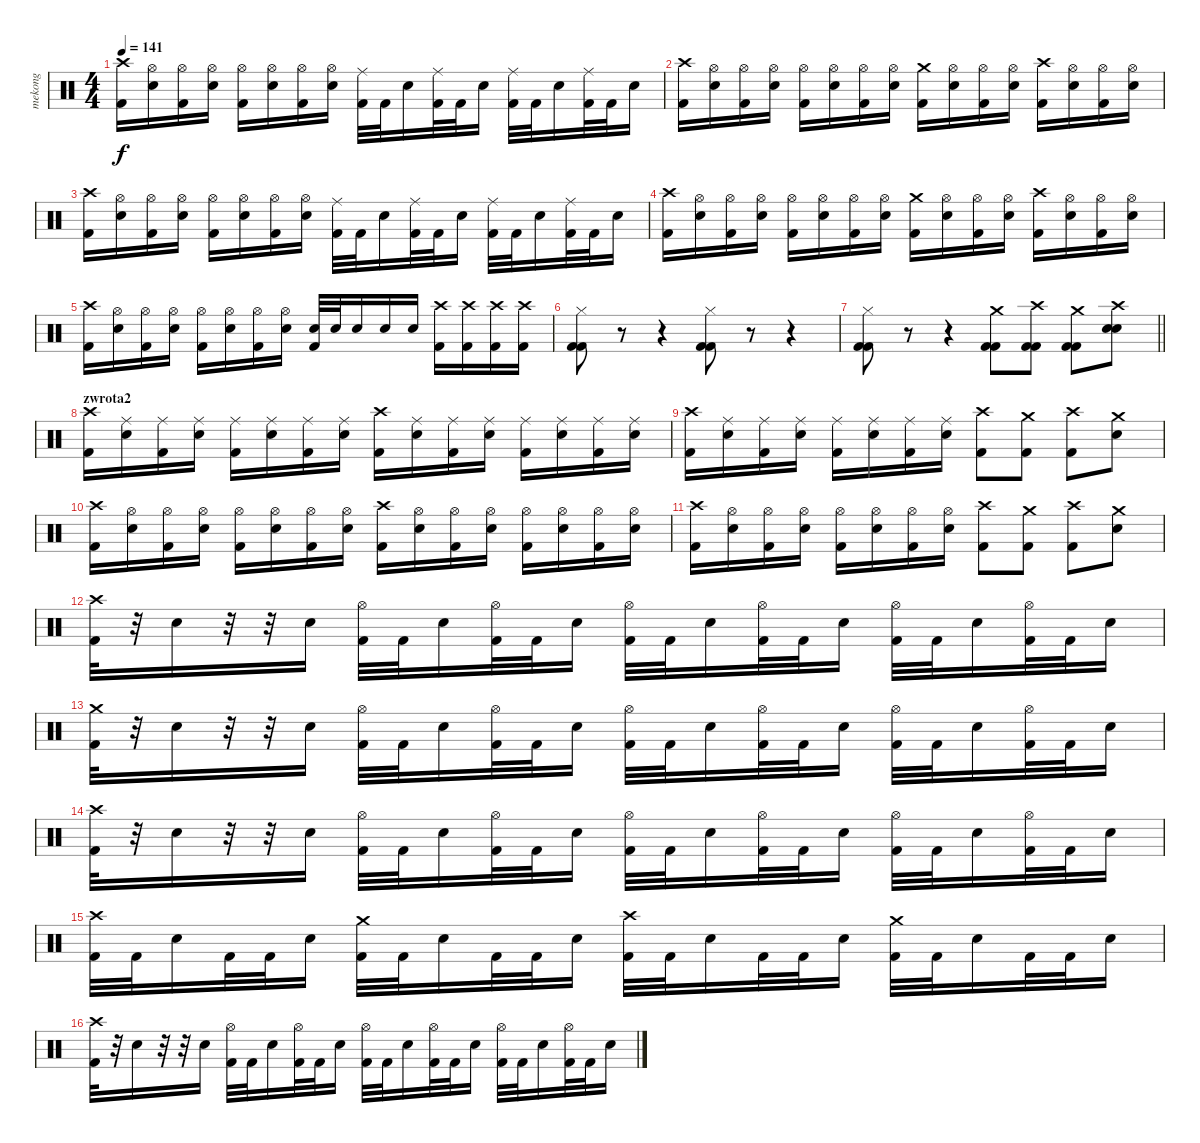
\track ("mekong" "mekong") {instrument percussion}
\staff {score}
\articulation defaults
\ts (4 4)
\tempo 141
\clef neutral
\ks c
("Crash high (hit)" "Kick (hit) 2").16{dy f} ("Electric Snare (hit)" "Hi-Hat (open)").16 ("Hi-Hat (open)" "Kick (hit) 2").16 ("Electric Snare (hit)" "Hi-Hat (open)").16 ("Hi-Hat (open)" "Kick (hit) 2").16 ("Electric Snare (hit)" "Hi-Hat (open)").16 ("Hi-Hat (open)" "Kick (hit) 2").16 ("Electric Snare (hit)" "Hi-Hat (open)").16 ("Ride (middle)" "Kick (hit) 2").32 "Kick (hit) 2".32 "Electric Snare (hit)".16 ("Ride (middle)" "Kick (hit) 2").32 "Kick (hit) 2".32 "Electric Snare (hit)".16 ("Ride (middle)" "Kick (hit) 2").32 "Kick (hit) 2".32 "Electric Snare (hit)".16 ("Ride (middle)" "Kick (hit) 2").32 "Kick (hit) 2".32 "Electric Snare (hit)".16 |
("Crash high (hit)" "Kick (hit) 2").16 ("Electric Snare (hit)" "Hi-Hat (open)").16 ("Hi-Hat (open)" "Kick (hit) 2").16 ("Electric Snare (hit)" "Hi-Hat (open)").16 ("Hi-Hat (open)" "Kick (hit) 2").16 ("Electric Snare (hit)" "Hi-Hat (open)").16 ("Hi-Hat (open)" "Kick (hit) 2").16 ("Electric Snare (hit)" "Hi-Hat (open)").16 ("Crash medium (hit)" "Kick (hit) 2").16 ("Electric Snare (hit)" "Hi-Hat (open)").16 ("Hi-Hat (open)" "Kick (hit) 2").16 ("Electric Snare (hit)" "Hi-Hat (open)").16 ("Crash high (hit)" "Kick (hit) 2").16 ("Electric Snare (hit)" "Hi-Hat (open)").16 ("Hi-Hat (open)" "Kick (hit) 2").16 ("Electric Snare (hit)" "Hi-Hat (open)").16 |
("Crash high (hit)" "Kick (hit) 2").16 ("Electric Snare (hit)" "Hi-Hat (open)").16 ("Hi-Hat (open)" "Kick (hit) 2").16 ("Electric Snare (hit)" "Hi-Hat (open)").16 ("Hi-Hat (open)" "Kick (hit) 2").16 ("Electric Snare (hit)" "Hi-Hat (open)").16 ("Hi-Hat (open)" "Kick (hit) 2").16 ("Electric Snare (hit)" "Hi-Hat (open)").16 ("Ride (middle)" "Kick (hit) 2").32 "Kick (hit) 2".32 "Electric Snare (hit)".16 ("Ride (middle)" "Kick (hit) 2").32 "Kick (hit) 2".32 "Electric Snare (hit)".16 ("Ride (middle)" "Kick (hit) 2").32 "Kick (hit) 2".32 "Electric Snare (hit)".16 ("Ride (middle)" "Kick (hit) 2").32 "Kick (hit) 2".32 "Electric Snare (hit)".16 |
("Crash high (hit)" "Kick (hit) 2").16 ("Electric Snare (hit)" "Hi-Hat (open)").16 ("Hi-Hat (open)" "Kick (hit) 2").16 ("Electric Snare (hit)" "Hi-Hat (open)").16 ("Hi-Hat (open)" "Kick (hit) 2").16 ("Electric Snare (hit)" "Hi-Hat (open)").16 ("Hi-Hat (open)" "Kick (hit) 2").16 ("Electric Snare (hit)" "Hi-Hat (open)").16 ("Crash medium (hit)" "Kick (hit) 2").16 ("Electric Snare (hit)" "Hi-Hat (open)").16 ("Hi-Hat (open)" "Kick (hit) 2").16 ("Electric Snare (hit)" "Hi-Hat (open)").16 ("Crash high (hit)" "Kick (hit) 2").16 ("Electric Snare (hit)" "Hi-Hat (open)").16 ("Hi-Hat (open)" "Kick (hit) 2").16 ("Electric Snare (hit)" "Hi-Hat (open)").16 |
("Crash high (hit)" "Kick (hit) 2").16 ("Electric Snare (hit)" "Hi-Hat (open)").16 ("Hi-Hat (open)" "Kick (hit) 2").16 ("Electric Snare (hit)" "Hi-Hat (open)").16 ("Hi-Hat (open)" "Kick (hit) 2").16 ("Electric Snare (hit)" "Hi-Hat (open)").16 ("Hi-Hat (open)" "Kick (hit) 2").16 ("Electric Snare (hit)" "Hi-Hat (open)").16 ("Electric Snare (hit)" "Kick (hit) 2").32 "Electric Snare (hit)".32 "Electric Snare (hit)".16 "Electric Snare (hit)".16 "Electric Snare (hit)".16 ("Crash high (hit)" "Kick (hit) 2").16 ("Crash high (hit)" "Kick (hit) 2").16 ("Crash high (hit)" "Kick (hit) 2").16 ("Crash high (hit)" "Kick (hit) 2").16 |
("Hi-Hat (closed)" "Kick (hit) 2" "Kick (hit) 2").8 r.8 r.4 ("Hi-Hat (closed)" "Kick (hit) 2" "Kick (hit) 2").8 r.8 r.4 |
\barLineRight lightlight
("Hi-Hat (closed)" "Kick (hit) 2" "Kick (hit) 2").8 r.8 r.4 ("Crash medium (hit)" "Kick (hit) 2" "Kick (hit) 2").8 ("Crash high (hit)" "Kick (hit) 2" "Kick (hit) 2").8 ("Crash medium (hit)" "Kick (hit) 2" "Kick (hit) 2").8 ("Crash high (hit)" "Electric Snare (hit)" "Electric Snare (hit)").8 |
\section ("" "zwrota2")
("Crash high (hit)" "Kick (hit) 2").16 ("Electric Snare (hit)" "Ride (middle)").16 ("Ride (middle)" "Kick (hit) 2").16 ("Electric Snare (hit)" "Ride (middle)").16 ("Ride (middle)" "Kick (hit) 2").16 ("Electric Snare (hit)" "Ride (middle)").16 ("Ride (middle)" "Kick (hit) 2").16 ("Electric Snare (hit)" "Ride (middle)").16 ("Crash high (hit)" "Kick (hit) 2").16 ("Electric Snare (hit)" "Ride (middle)").16 ("Ride (middle)" "Kick (hit) 2").16 ("Electric Snare (hit)" "Ride (middle)").16 ("Ride (middle)" "Kick (hit) 2").16 ("Electric Snare (hit)" "Ride (middle)").16 ("Ride (middle)" "Kick (hit) 2").16 ("Electric Snare (hit)" "Ride (middle)").16 |
("Crash high (hit)" "Kick (hit) 2").16 ("Electric Snare (hit)" "Ride (middle)").16 ("Ride (middle)" "Kick (hit) 2").16 ("Electric Snare (hit)" "Ride (middle)").16 ("Ride (middle)" "Kick (hit) 2").16 ("Electric Snare (hit)" "Ride (middle)").16 ("Ride (middle)" "Kick (hit) 2").16 ("Electric Snare (hit)" "Ride (middle)").16 ("Crash high (hit)" "Kick (hit) 2").8 ("Crash medium (hit)" "Kick (hit) 2").8 ("Crash high (hit)" "Kick (hit) 2").8 ("Crash medium (hit)" "Electric Snare (hit)").8 |
("Crash high (hit)" "Kick (hit) 2").16 ("Electric Snare (hit)" "Hi-Hat (open)").16 ("Hi-Hat (open)" "Kick (hit) 2").16 ("Electric Snare (hit)" "Hi-Hat (open)").16 ("Hi-Hat (open)" "Kick (hit) 2").16 ("Electric Snare (hit)" "Hi-Hat (open)").16 ("Hi-Hat (open)" "Kick (hit) 2").16 ("Electric Snare (hit)" "Hi-Hat (open)").16 ("Crash high (hit)" "Kick (hit) 2").16 ("Electric Snare (hit)" "Hi-Hat (open)").16 ("Hi-Hat (open)" "Kick (hit) 2").16 ("Electric Snare (hit)" "Hi-Hat (open)").16 ("Hi-Hat (open)" "Kick (hit) 2").16 ("Electric Snare (hit)" "Hi-Hat (open)").16 ("Hi-Hat (open)" "Kick (hit) 2").16 ("Electric Snare (hit)" "Hi-Hat (open)").16 |
("Crash high (hit)" "Kick (hit) 2").16 ("Electric Snare (hit)" "Hi-Hat (open)").16 ("Hi-Hat (open)" "Kick (hit) 2").16 ("Electric Snare (hit)" "Hi-Hat (open)").16 ("Hi-Hat (open)" "Kick (hit) 2").16 ("Electric Snare (hit)" "Hi-Hat (open)").16 ("Hi-Hat (open)" "Kick (hit) 2").16 ("Electric Snare (hit)" "Hi-Hat (open)").16 ("Crash high (hit)" "Kick (hit) 2").8 ("Crash medium (hit)" "Kick (hit) 2").8 ("Crash high (hit)" "Kick (hit) 2").8 ("Crash medium (hit)" "Electric Snare (hit)").8 |
("Crash high (hit)" "Kick (hit) 2").32 r.32 "Electric Snare (hit)".16 r.32 r.32 "Electric Snare (hit)".16 ("Hi-Hat (open)" "Kick (hit) 2").32 "Kick (hit) 2".32 "Electric Snare (hit)".16 ("Hi-Hat (open)" "Kick (hit) 2").32 "Kick (hit) 2".32 "Electric Snare (hit)".16 ("Hi-Hat (open)" "Kick (hit) 2").32 "Kick (hit) 2".32 "Electric Snare (hit)".16 ("Hi-Hat (open)" "Kick (hit) 2").32 "Kick (hit) 2".32 "Electric Snare (hit)".16 ("Hi-Hat (open)" "Kick (hit) 2").32 "Kick (hit) 2".32 "Electric Snare (hit)".16 ("Hi-Hat (open)" "Kick (hit) 2").32 "Kick (hit) 2".32 "Electric Snare (hit)".16 |
("Crash medium (hit)" "Kick (hit) 2").32 r.32 "Electric Snare (hit)".16 r.32 r.32 "Electric Snare (hit)".16 ("Hi-Hat (open)" "Kick (hit) 2").32 "Kick (hit) 2".32 "Electric Snare (hit)".16 ("Hi-Hat (open)" "Kick (hit) 2").32 "Kick (hit) 2".32 "Electric Snare (hit)".16 ("Hi-Hat (open)" "Kick (hit) 2").32 "Kick (hit) 2".32 "Electric Snare (hit)".16 ("Hi-Hat (open)" "Kick (hit) 2").32 "Kick (hit) 2".32 "Electric Snare (hit)".16 ("Hi-Hat (open)" "Kick (hit) 2").32 "Kick (hit) 2".32 "Electric Snare (hit)".16 ("Hi-Hat (open)" "Kick (hit) 2").32 "Kick (hit) 2".32 "Electric Snare (hit)".16 |
("Crash high (hit)" "Kick (hit) 2").32 r.32 "Electric Snare (hit)".16 r.32 r.32 "Electric Snare (hit)".16 ("Hi-Hat (open)" "Kick (hit) 2").32 "Kick (hit) 2".32 "Electric Snare (hit)".16 ("Hi-Hat (open)" "Kick (hit) 2").32 "Kick (hit) 2".32 "Electric Snare (hit)".16 ("Hi-Hat (open)" "Kick (hit) 2").32 "Kick (hit) 2".32 "Electric Snare (hit)".16 ("Hi-Hat (open)" "Kick (hit) 2").32 "Kick (hit) 2".32 "Electric Snare (hit)".16 ("Hi-Hat (open)" "Kick (hit) 2").32 "Kick (hit) 2".32 "Electric Snare (hit)".16 ("Hi-Hat (open)" "Kick (hit) 2").32 "Kick (hit) 2".32 "Electric Snare (hit)".16 |
("Crash high (hit)" "Kick (hit) 2").32 "Kick (hit) 2".32 "Electric Snare (hit)".16 "Kick (hit) 2".32 "Kick (hit) 2".32 "Electric Snare (hit)".16 ("Crash medium (hit)" "Kick (hit) 2").32 "Kick (hit) 2".32 "Electric Snare (hit)".16 "Kick (hit) 2".32 "Kick (hit) 2".32 "Electric Snare (hit)".16 ("Crash high (hit)" "Kick (hit) 2").32 "Kick (hit) 2".32 "Electric Snare (hit)".16 "Kick (hit) 2".32 "Kick (hit) 2".32 "Electric Snare (hit)".16 ("Crash medium (hit)" "Kick (hit) 2").32 "Kick (hit) 2".32 "Electric Snare (hit)".16 "Kick (hit) 2".32 "Kick (hit) 2".32 "Electric Snare (hit)".16 |
("Crash high (hit)" "Kick (hit) 2").32 r.32 "Electric Snare (hit)".16 r.32 r.32 "Electric Snare (hit)".16 ("Hi-Hat (open)" "Kick (hit) 2").32 "Kick (hit) 2".32 "Electric Snare (hit)".16 ("Hi-Hat (open)" "Kick (hit) 2").32 "Kick (hit) 2".32 "Electric Snare (hit)".16 ("Hi-Hat (open)" "Kick (hit) 2").32 "Kick (hit) 2".32 "Electric Snare (hit)".16 ("Hi-Hat (open)" "Kick (hit) 2").32 "Kick (hit) 2".32 "Electric Snare (hit)".16 ("Hi-Hat (open)" "Kick (hit) 2").32 "Kick (hit) 2".32 "Electric Snare (hit)".16 ("Hi-Hat (open)" "Kick (hit) 2").32 "Kick (hit) 2".32 "Electric Snare (hit)".16
